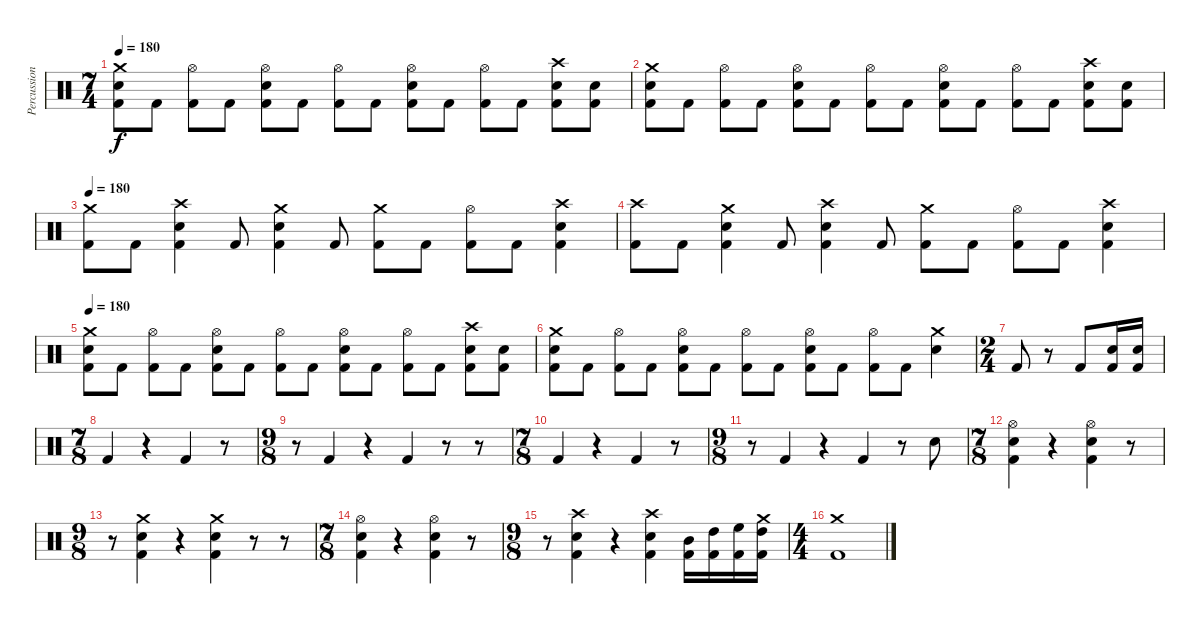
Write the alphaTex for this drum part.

\track ("Percussion" "Percussion") {instrument percussion}
\staff {score}
\articulation defaults
\ts (7 4)
\tempo 180
\clef neutral
\ks c
("Crash medium (hit)" "Snare (hit) 2" "Kick (hit) 2").8{dy f} "Kick (hit) 2".8 ("Hi-Hat (open)" "Kick (hit) 2").8 "Kick (hit) 2".8 ("Hi-Hat (open)" "Snare (hit) 2" "Kick (hit) 2").8 "Kick (hit) 2".8 ("Hi-Hat (open)" "Kick (hit) 2").8 "Kick (hit) 2".8 ("Hi-Hat (open)" "Snare (hit) 2" "Kick (hit) 2").8 "Kick (hit) 2".8 ("Hi-Hat (open)" "Kick (hit) 2").8 "Kick (hit) 2".8 ("Crash high (hit)" "Snare (hit) 2" "Kick (hit) 2").8 ("Snare (hit) 2" "Kick (hit) 2").8 |
("Crash medium (hit)" "Snare (hit) 2" "Kick (hit) 2").8 "Kick (hit) 2".8 ("Hi-Hat (open)" "Kick (hit) 2").8 "Kick (hit) 2".8 ("Hi-Hat (open)" "Snare (hit) 2" "Kick (hit) 2").8 "Kick (hit) 2".8 ("Hi-Hat (open)" "Kick (hit) 2").8 "Kick (hit) 2".8 ("Hi-Hat (open)" "Snare (hit) 2" "Kick (hit) 2").8 "Kick (hit) 2".8 ("Hi-Hat (open)" "Kick (hit) 2").8 "Kick (hit) 2".8 ("Crash high (hit)" "Snare (hit) 2" "Kick (hit) 2").8 ("Snare (hit) 2" "Kick (hit) 2").8 |
\tempo 200
\tempo 180
("Crash medium (hit)" "Kick (hit) 2").8 "Kick (hit) 2".8 ("Crash high (hit)" "Snare (hit) 2" "Kick (hit) 2").4 "Kick (hit) 2".8 ("Crash medium (hit)" "Snare (hit) 2" "Kick (hit) 2").4 "Kick (hit) 2".8 ("Crash medium (hit)" "Kick (hit) 2").8 "Kick (hit) 2".8 ("Hi-Hat (open)" "Kick (hit) 2").8 "Kick (hit) 2".8 ("Crash high (hit)" "Snare (hit) 2" "Kick (hit) 2").4 |
("Crash high (hit)" "Kick (hit) 2").8 "Kick (hit) 2".8 ("Crash medium (hit)" "Snare (hit) 2" "Kick (hit) 2").4 "Kick (hit) 2".8 ("Crash high (hit)" "Snare (hit) 2" "Kick (hit) 2").4 "Kick (hit) 2".8 ("Crash medium (hit)" "Kick (hit) 2").8 "Kick (hit) 2".8 ("Hi-Hat (open)" "Kick (hit) 2").8 "Kick (hit) 2".8 ("Crash high (hit)" "Snare (hit) 2" "Kick (hit) 2").4 |
\tempo 180
("Crash medium (hit)" "Snare (hit) 2" "Kick (hit) 2").8 "Kick (hit) 2".8 ("Hi-Hat (open)" "Kick (hit) 2").8 "Kick (hit) 2".8 ("Hi-Hat (open)" "Snare (hit) 2" "Kick (hit) 2").8 "Kick (hit) 2".8 ("Hi-Hat (open)" "Kick (hit) 2").8 "Kick (hit) 2".8 ("Hi-Hat (open)" "Snare (hit) 2" "Kick (hit) 2").8 "Kick (hit) 2".8 ("Hi-Hat (open)" "Kick (hit) 2").8 "Kick (hit) 2".8 ("Crash high (hit)" "Snare (hit) 2" "Kick (hit) 2").8 ("Snare (hit) 2" "Kick (hit) 2").8 |
("Crash medium (hit)" "Snare (hit) 2" "Kick (hit) 2").8 "Kick (hit) 2".8 ("Hi-Hat (open)" "Kick (hit) 2").8 "Kick (hit) 2".8 ("Hi-Hat (open)" "Snare (hit) 2" "Kick (hit) 2").8 "Kick (hit) 2".8 ("Hi-Hat (open)" "Kick (hit) 2").8 "Kick (hit) 2".8 ("Hi-Hat (open)" "Snare (hit) 2" "Kick (hit) 2").8 "Kick (hit) 2".8 ("Hi-Hat (open)" "Kick (hit) 2").8 "Kick (hit) 2".8 ("Crash medium (hit)" "Snare (hit) 2").4 |
\ts (2 4)
"Kick (hit) 2".8 r.8 "Kick (hit) 2".8 ("Snare (hit) 2" "Kick (hit) 2").16 ("Snare (hit) 2" "Kick (hit) 2").16 |
\ts (7 8)
"Kick (hit) 2".4 r.4 "Kick (hit) 2".4 r.8 |
\ts (9 8)
r.8 "Kick (hit) 2".4 r.4 "Kick (hit) 2".4 r.8 r.8 |
\ts (7 8)
"Kick (hit) 2".4 r.4 "Kick (hit) 2".4 r.8 |
\ts (9 8)
r.8 "Kick (hit) 2".4 r.4 "Kick (hit) 2".4 r.8 "Snare (hit) 2".8 |
\ts (7 8)
("Hi-Hat (open)" "Snare (hit) 2" "Kick (hit) 2").4 r.4 ("Hi-Hat (open)" "Snare (hit) 2" "Kick (hit) 2").4 r.8 |
\ts (9 8)
r.8 ("Crash medium (hit)" "Snare (hit) 2" "Kick (hit) 2").4 r.4 ("Crash medium (hit)" "Snare (hit) 2" "Kick (hit) 2").4 r.8 r.8 |
\ts (7 8)
("Hi-Hat (open)" "Snare (hit) 2" "Kick (hit) 2").4 r.4 ("Hi-Hat (open)" "Snare (hit) 2" "Kick (hit) 2").4 r.8 |
\ts (9 8)
r.8 ("Crash high (hit)" "Snare (hit) 2" "Kick (hit) 2").4 r.4 ("Crash high (hit)" "Snare (hit) 2" "Kick (hit) 2").4 ("Mid Tom (hit)" "Kick (hit) 2").16 ("High Tom (hit)" "Kick (hit) 2").16 ("High Floor Tom (hit)" "Kick (hit) 2").16 ("Crash medium (hit)" "High Tom (hit)" "Kick (hit) 2").16 |
\ts (4 4)
("Crash medium (hit)" "Kick (hit) 2").1
